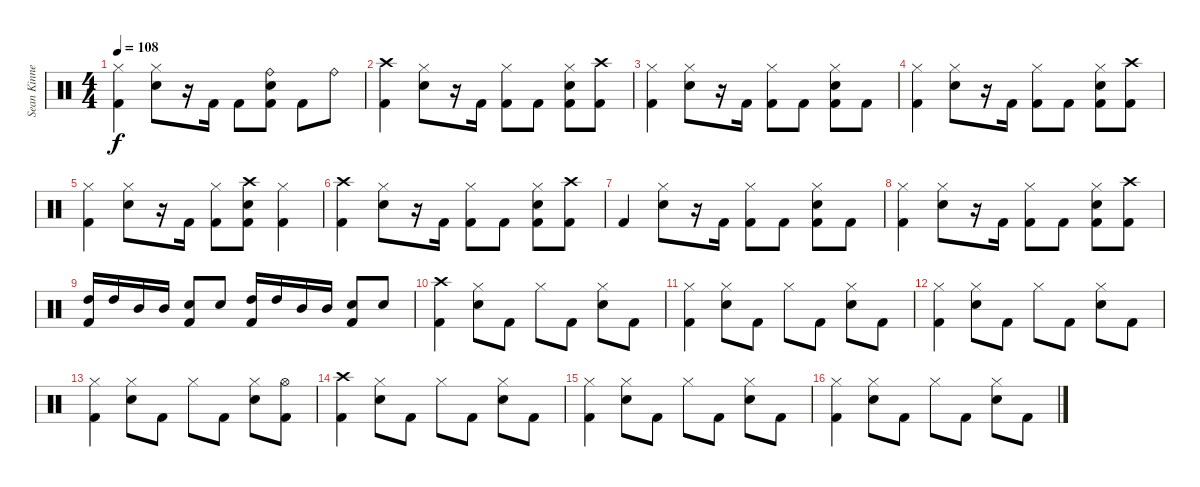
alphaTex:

\track ("Sean Kinney- Drums" "Sean Kinne") {instrument percussion}
\staff {score}
\articulation defaults
\ts (4 4)
\tempo 108
\clef neutral
\ks c
("Hi-Hat (closed)" "Kick (hit) 2").4{dy f} ("Hi-Hat (closed)" "Electric Snare (hit)").8 r.16 "Kick (hit) 2".16 "Kick (hit) 2".8 ("Ride (bell)" "Electric Snare (hit)" "Kick (hit) 2").8 "Kick (hit) 2".8 "Ride (bell)".8 |
("Crash high (hit)" "Kick (hit) 2").4 ("Hi-Hat (closed)" "Electric Snare (hit)").8 r.16 "Kick (hit) 2".16 ("Hi-Hat (closed)" "Kick (hit) 2").8 "Kick (hit) 2".8 ("Hi-Hat (closed)" "Electric Snare (hit)" "Kick (hit) 2").8 ("Crash high (hit)" "Kick (hit) 2").8 |
("Hi-Hat (closed)" "Kick (hit) 2").4 ("Hi-Hat (closed)" "Electric Snare (hit)").8 r.16 "Kick (hit) 2".16 ("Hi-Hat (closed)" "Kick (hit) 2").8 "Kick (hit) 2".8 ("Hi-Hat (closed)" "Electric Snare (hit)" "Kick (hit) 2").8 "Kick (hit) 2".8 |
("Hi-Hat (closed)" "Kick (hit) 2").4 ("Hi-Hat (closed)" "Electric Snare (hit)").8 r.16 "Kick (hit) 2".16 ("Hi-Hat (closed)" "Kick (hit) 2").8 "Kick (hit) 2".8 ("Hi-Hat (closed)" "Electric Snare (hit)" "Kick (hit) 2").8 ("Crash high (hit)" "Kick (hit) 2").8 |
("Hi-Hat (closed)" "Kick (hit) 2").4 ("Hi-Hat (closed)" "Electric Snare (hit)").8 r.16 "Kick (hit) 2".16 ("Hi-Hat (closed)" "Kick (hit) 2").8 ("Crash high (hit)" "Electric Snare (hit)" "Kick (hit) 2").8 ("Hi-Hat (closed)" "Kick (hit) 2").4 |
("Crash high (hit)" "Kick (hit) 2").4 ("Hi-Hat (closed)" "Electric Snare (hit)").8 r.16 "Kick (hit) 2".16 ("Hi-Hat (closed)" "Kick (hit) 2").8 "Kick (hit) 2".8 ("Hi-Hat (closed)" "Electric Snare (hit)" "Kick (hit) 2").8 ("Crash high (hit)" "Kick (hit) 2").8 |
"Kick (hit) 2".4 ("Hi-Hat (closed)" "Electric Snare (hit)").8 r.16 "Kick (hit) 2".16 ("Hi-Hat (closed)" "Kick (hit) 2").8 "Kick (hit) 2".8 ("Hi-Hat (closed)" "Electric Snare (hit)" "Kick (hit) 2").8 "Kick (hit) 2".8 |
("Hi-Hat (closed)" "Kick (hit) 2").4 ("Hi-Hat (closed)" "Electric Snare (hit)").8 r.16 "Kick (hit) 2".16 ("Hi-Hat (closed)" "Kick (hit) 2").8 "Kick (hit) 2".8 ("Hi-Hat (closed)" "Electric Snare (hit)" "Kick (hit) 2").8 ("Crash high (hit)" "Kick (hit) 2").8 |
("High Tom (hit)" "Kick (hit) 2").16 "High Tom (hit)".16 "Mid Tom (hit)".16 "Mid Tom (hit)".16 ("Electric Snare (hit)" "Kick (hit) 2").8 "Electric Snare (hit)".8 ("High Tom (hit)" "Kick (hit) 2").16 "High Tom (hit)".16 "Mid Tom (hit)".16 "Mid Tom (hit)".16 ("Electric Snare (hit)" "Kick (hit) 2").8 "Electric Snare (hit)".8 |
("Crash high (hit)" "Kick (hit) 2").4 ("Hi-Hat (closed)" "Electric Snare (hit)").8 "Kick (hit) 2".8 "Hi-Hat (closed)".8 "Kick (hit) 2".8 ("Hi-Hat (closed)" "Electric Snare (hit)").8 "Kick (hit) 2".8 |
("Hi-Hat (closed)" "Kick (hit) 2").4 ("Hi-Hat (closed)" "Electric Snare (hit)").8 "Kick (hit) 2".8 "Hi-Hat (closed)".8 "Kick (hit) 2".8 ("Hi-Hat (closed)" "Electric Snare (hit)").8 "Kick (hit) 2".8 |
("Hi-Hat (closed)" "Kick (hit) 2").4 ("Hi-Hat (closed)" "Electric Snare (hit)").8 "Kick (hit) 2".8 "Hi-Hat (closed)".8 "Kick (hit) 2".8 ("Hi-Hat (closed)" "Electric Snare (hit)").8 "Kick (hit) 2".8 |
("Hi-Hat (closed)" "Kick (hit) 2").4 ("Hi-Hat (closed)" "Electric Snare (hit)").8 "Kick (hit) 2".8 "Hi-Hat (closed)".8 "Kick (hit) 2".8 ("Hi-Hat (closed)" "Electric Snare (hit)").8 ("Hi-Hat (open)" "Kick (hit) 2").8 |
("Crash high (hit)" "Kick (hit) 2").4 ("Hi-Hat (closed)" "Electric Snare (hit)").8 "Kick (hit) 2".8 "Hi-Hat (closed)".8 "Kick (hit) 2".8 ("Hi-Hat (closed)" "Electric Snare (hit)").8 "Kick (hit) 2".8 |
("Hi-Hat (closed)" "Kick (hit) 2").4 ("Hi-Hat (closed)" "Electric Snare (hit)").8 "Kick (hit) 2".8 "Hi-Hat (closed)".8 "Kick (hit) 2".8 ("Hi-Hat (closed)" "Electric Snare (hit)").8 "Kick (hit) 2".8 |
("Hi-Hat (closed)" "Kick (hit) 2").4 ("Hi-Hat (closed)" "Electric Snare (hit)").8 "Kick (hit) 2".8 "Hi-Hat (closed)".8 "Kick (hit) 2".8 ("Hi-Hat (closed)" "Electric Snare (hit)").8 "Kick (hit) 2".8
